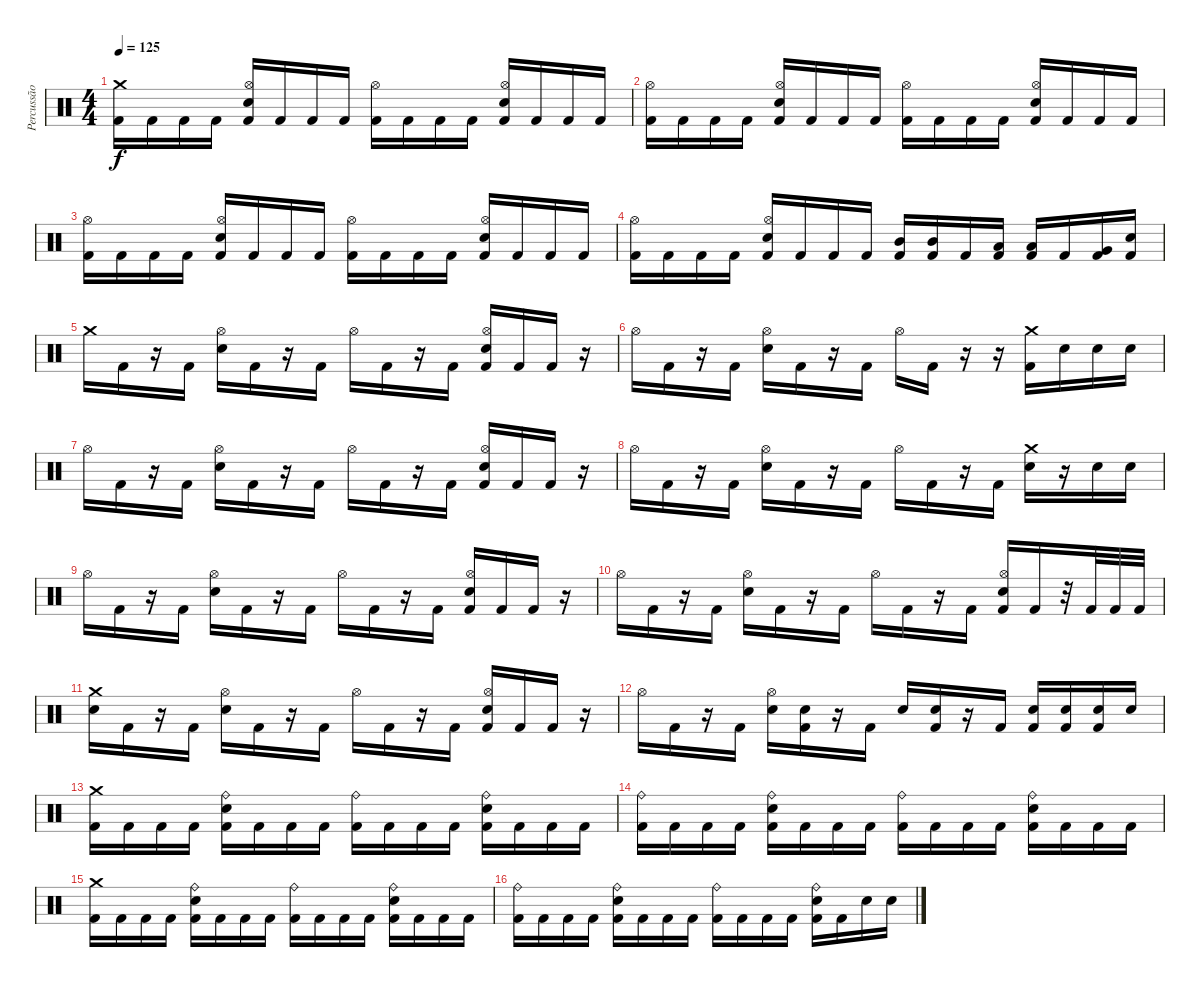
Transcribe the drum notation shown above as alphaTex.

\track ("Percussão" "Percussão") {instrument percussion}
\staff {score}
\articulation defaults
\ts (4 4)
\tempo 125
\clef neutral
\ks c
("Crash medium (hit)" "Kick (hit) 2").16{dy f} "Kick (hit) 2".16 "Kick (hit) 2".16 "Kick (hit) 2".16 ("Hi-Hat (open)" "Electric Snare (hit)" "Kick (hit) 2").16 "Kick (hit) 2".16 "Kick (hit) 2".16 "Kick (hit) 2".16 ("Hi-Hat (open)" "Kick (hit) 2").16 "Kick (hit) 2".16 "Kick (hit) 2".16 "Kick (hit) 2".16 ("Hi-Hat (open)" "Electric Snare (hit)" "Kick (hit) 2").16 "Kick (hit) 2".16 "Kick (hit) 2".16 "Kick (hit) 2".16 |
("Hi-Hat (open)" "Kick (hit) 2").16 "Kick (hit) 2".16 "Kick (hit) 2".16 "Kick (hit) 2".16 ("Hi-Hat (open)" "Electric Snare (hit)" "Kick (hit) 2").16 "Kick (hit) 2".16 "Kick (hit) 2".16 "Kick (hit) 2".16 ("Hi-Hat (open)" "Kick (hit) 2").16 "Kick (hit) 2".16 "Kick (hit) 2".16 "Kick (hit) 2".16 ("Hi-Hat (open)" "Electric Snare (hit)" "Kick (hit) 2").16 "Kick (hit) 2".16 "Kick (hit) 2".16 "Kick (hit) 2".16 |
("Hi-Hat (open)" "Kick (hit) 2").16 "Kick (hit) 2".16 "Kick (hit) 2".16 "Kick (hit) 2".16 ("Hi-Hat (open)" "Electric Snare (hit)" "Kick (hit) 2").16 "Kick (hit) 2".16 "Kick (hit) 2".16 "Kick (hit) 2".16 ("Hi-Hat (open)" "Kick (hit) 2").16 "Kick (hit) 2".16 "Kick (hit) 2".16 "Kick (hit) 2".16 ("Hi-Hat (open)" "Electric Snare (hit)" "Kick (hit) 2").16 "Kick (hit) 2".16 "Kick (hit) 2".16 "Kick (hit) 2".16 |
("Hi-Hat (open)" "Kick (hit) 2").16 "Kick (hit) 2".16 "Kick (hit) 2".16 "Kick (hit) 2".16 ("Hi-Hat (open)" "Electric Snare (hit)" "Kick (hit) 2").16 "Kick (hit) 2".16 "Kick (hit) 2".16 "Kick (hit) 2".16 ("Mid Tom (hit)" "Kick (hit) 2").16 ("Mid Tom (hit)" "Kick (hit) 2").16 "Kick (hit) 2".16 ("Low Tom (hit)" "Kick (hit) 2").16 ("Low Tom (hit)" "Kick (hit) 2").16 "Kick (hit) 2".16 ("Very Low Tom (hit)" "Kick (hit) 2").16 ("Electric Snare (hit)" "Kick (hit) 2").16 |
"Crash medium (hit)".16 "Kick (hit) 2".16 r.16 "Kick (hit) 2".16 ("Hi-Hat (open)" "Electric Snare (hit)").16 "Kick (hit) 2".16 r.16 "Kick (hit) 2".16 "Hi-Hat (open)".16 "Kick (hit) 2".16 r.16 "Kick (hit) 2".16 ("Hi-Hat (open)" "Electric Snare (hit)" "Kick (hit) 2").16 "Kick (hit) 2".16 "Kick (hit) 2".16 r.16 |
"Hi-Hat (open)".16 "Kick (hit) 2".16 r.16 "Kick (hit) 2".16 ("Hi-Hat (open)" "Electric Snare (hit)").16 "Kick (hit) 2".16 r.16 "Kick (hit) 2".16 "Hi-Hat (open)".16 "Kick (hit) 2".16 r.16 r.16 ("Crash medium (hit)" "Kick (hit) 2").16 "Electric Snare (hit)".16 "Electric Snare (hit)".16 "Electric Snare (hit)".16 |
"Hi-Hat (open)".16 "Kick (hit) 2".16 r.16 "Kick (hit) 2".16 ("Hi-Hat (open)" "Electric Snare (hit)").16 "Kick (hit) 2".16 r.16 "Kick (hit) 2".16 "Hi-Hat (open)".16 "Kick (hit) 2".16 r.16 "Kick (hit) 2".16 ("Hi-Hat (open)" "Electric Snare (hit)" "Kick (hit) 2").16 "Kick (hit) 2".16 "Kick (hit) 2".16 r.16 |
"Hi-Hat (open)".16 "Kick (hit) 2".16 r.16 "Kick (hit) 2".16 ("Hi-Hat (open)" "Electric Snare (hit)").16 "Kick (hit) 2".16 r.16 "Kick (hit) 2".16 "Hi-Hat (open)".16 "Kick (hit) 2".16 r.16 "Kick (hit) 2".16 ("Crash medium (hit)" "Electric Snare (hit)").16 r.16 "Electric Snare (hit)".16 "Electric Snare (hit)".16 |
"Hi-Hat (open)".16 "Kick (hit) 2".16 r.16 "Kick (hit) 2".16 ("Hi-Hat (open)" "Electric Snare (hit)").16 "Kick (hit) 2".16 r.16 "Kick (hit) 2".16 "Hi-Hat (open)".16 "Kick (hit) 2".16 r.16 "Kick (hit) 2".16 ("Hi-Hat (open)" "Electric Snare (hit)" "Kick (hit) 2").16 "Kick (hit) 2".16 "Kick (hit) 2".16 r.16 |
"Hi-Hat (open)".16 "Kick (hit) 2".16 r.16 "Kick (hit) 2".16 ("Hi-Hat (open)" "Electric Snare (hit)").16 "Kick (hit) 2".16 r.16 "Kick (hit) 2".16 "Hi-Hat (open)".16 "Kick (hit) 2".16 r.16 "Kick (hit) 2".16 ("Hi-Hat (open)" "Electric Snare (hit)" "Kick (hit) 2").16 "Kick (hit) 2".16 r.32 "Kick (hit) 2".32 "Kick (hit) 2".32 "Kick (hit) 2".32 |
("Crash medium (hit)" "Electric Snare (hit)").16 "Kick (hit) 2".16 r.16 "Kick (hit) 2".16 ("Hi-Hat (open)" "Electric Snare (hit)").16 "Kick (hit) 2".16 r.16 "Kick (hit) 2".16 "Hi-Hat (open)".16 "Kick (hit) 2".16 r.16 "Kick (hit) 2".16 ("Hi-Hat (open)" "Electric Snare (hit)" "Kick (hit) 2").16 "Kick (hit) 2".16 "Kick (hit) 2".16 r.16 |
"Hi-Hat (open)".16 "Kick (hit) 2".16 r.16 "Kick (hit) 2".16 ("Hi-Hat (open)" "Electric Snare (hit)").16 ("Electric Snare (hit)" "Kick (hit) 2").16 r.16 "Kick (hit) 2".16 "Electric Snare (hit)".16 ("Electric Snare (hit)" "Kick (hit) 2").16 r.16 "Kick (hit) 2".16 ("Electric Snare (hit)" "Kick (hit) 2").16 ("Electric Snare (hit)" "Kick (hit) 2").16 ("Electric Snare (hit)" "Kick (hit) 2").16 "Electric Snare (hit)".16 |
("Crash medium (hit)" "Kick (hit) 2").16 "Kick (hit) 2".16 "Kick (hit) 2".16 "Kick (hit) 2".16 ("Ride (bell)" "Electric Snare (hit)" "Kick (hit) 2").16 "Kick (hit) 2".16 "Kick (hit) 2".16 "Kick (hit) 2".16 ("Ride (bell)" "Kick (hit) 2").16 "Kick (hit) 2".16 "Kick (hit) 2".16 "Kick (hit) 2".16 ("Ride (bell)" "Electric Snare (hit)" "Kick (hit) 2").16 "Kick (hit) 2".16 "Kick (hit) 2".16 "Kick (hit) 2".16 |
("Ride (bell)" "Kick (hit) 2").16 "Kick (hit) 2".16 "Kick (hit) 2".16 "Kick (hit) 2".16 ("Ride (bell)" "Electric Snare (hit)" "Kick (hit) 2").16 "Kick (hit) 2".16 "Kick (hit) 2".16 "Kick (hit) 2".16 ("Ride (bell)" "Kick (hit) 2").16 "Kick (hit) 2".16 "Kick (hit) 2".16 "Kick (hit) 2".16 ("Ride (bell)" "Electric Snare (hit)" "Kick (hit) 2").16 "Kick (hit) 2".16 "Kick (hit) 2".16 "Kick (hit) 2".16 |
("Crash medium (hit)" "Kick (hit) 2").16 "Kick (hit) 2".16 "Kick (hit) 2".16 "Kick (hit) 2".16 ("Ride (bell)" "Electric Snare (hit)" "Kick (hit) 2").16 "Kick (hit) 2".16 "Kick (hit) 2".16 "Kick (hit) 2".16 ("Ride (bell)" "Kick (hit) 2").16 "Kick (hit) 2".16 "Kick (hit) 2".16 "Kick (hit) 2".16 ("Ride (bell)" "Electric Snare (hit)" "Kick (hit) 2").16 "Kick (hit) 2".16 "Kick (hit) 2".16 "Kick (hit) 2".16 |
("Ride (bell)" "Kick (hit) 2").16 "Kick (hit) 2".16 "Kick (hit) 2".16 "Kick (hit) 2".16 ("Ride (bell)" "Electric Snare (hit)" "Kick (hit) 2").16 "Kick (hit) 2".16 "Kick (hit) 2".16 "Kick (hit) 2".16 ("Ride (bell)" "Kick (hit) 2").16 "Kick (hit) 2".16 "Kick (hit) 2".16 "Kick (hit) 2".16 ("Ride (bell)" "Electric Snare (hit)" "Kick (hit) 2").16 "Kick (hit) 2".16 "Electric Snare (hit)".16 "Electric Snare (hit)".16
